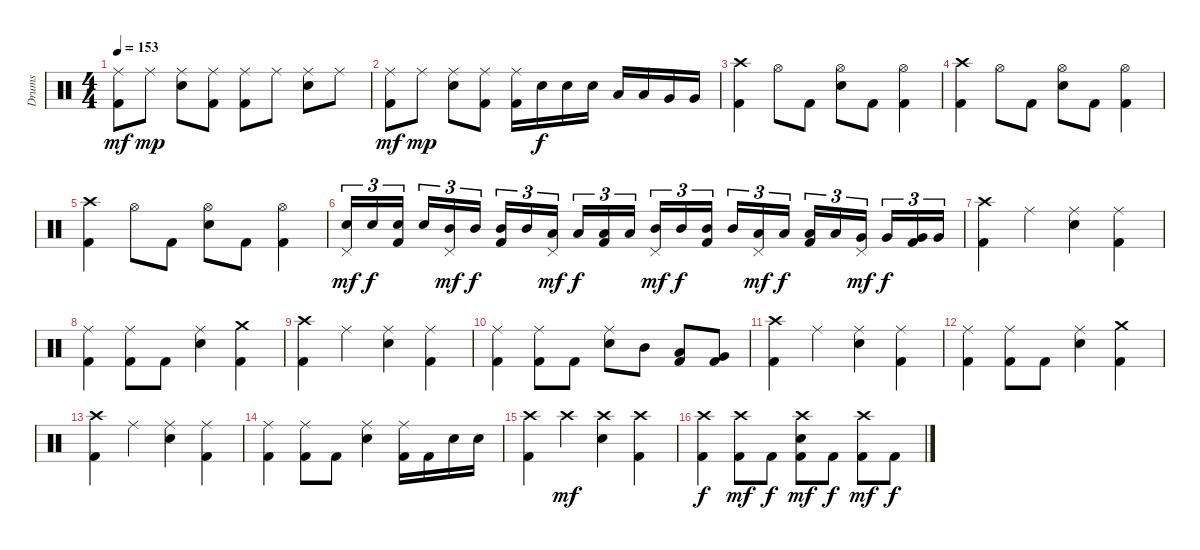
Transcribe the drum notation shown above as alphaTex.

\track ("Drums" "Drums") {instrument percussion}
\staff {score}
\articulation defaults
\ts (4 4)
\tempo 153
\clef neutral
\ks c
("Ride (middle)" "Kick (hit) 2").8{dy mf} "Ride (middle)".8{dy mp} ("Ride (middle)" "Electric Snare (hit)").8 ("Ride (middle)" "Kick (hit) 2").8 ("Ride (middle)" "Kick (hit) 2").8 "Ride (middle)".8 ("Ride (middle)" "Electric Snare (hit)").8 "Ride (middle)".8 |
("Ride (middle)" "Kick (hit) 2").8{dy mf} "Ride (middle)".8{dy mp} ("Ride (middle)" "Electric Snare (hit)").8 ("Ride (middle)" "Kick (hit) 2").8 ("Ride (middle)" "Kick (hit) 2").16 "Electric Snare (hit)".16{dy f} "Electric Snare (hit)".16 "Electric Snare (hit)".16 "Low Tom (hit)".16 "Low Tom (hit)".16 "Very Low Tom (hit)".16 "Very Low Tom (hit)".16 |
("Crash high (hit)" "Kick (hit) 2").4 "Hi-Hat (open)".8 "Kick (hit) 2".8 ("Hi-Hat (open)" "Electric Snare (hit)").8 "Kick (hit) 2".8 ("Hi-Hat (open)" "Kick (hit) 2").4 |
("Crash high (hit)" "Kick (hit) 2").4 "Hi-Hat (open)".8 "Kick (hit) 2".8 ("Hi-Hat (open)" "Electric Snare (hit)").8 "Kick (hit) 2".8 ("Hi-Hat (open)" "Kick (hit) 2").4 |
("Crash high (hit)" "Kick (hit) 2").4 "Hi-Hat (open)".8 "Kick (hit) 2".8 ("Hi-Hat (open)" "Electric Snare (hit)").8 "Kick (hit) 2".8 ("Hi-Hat (open)" "Kick (hit) 2").4 |
("Pedal Hi-Hat (hit)" "Electric Snare (hit)").16{tu (3 2) dy mf} "Electric Snare (hit)".16{tu (3 2) dy f} ("Electric Snare (hit)" "Kick (hit) 2").16{tu (3 2)} "Electric Snare (hit)".16{tu (3 2)} ("Pedal Hi-Hat (hit)" "Mid Tom (hit)").16{tu (3 2) dy mf} "Mid Tom (hit)".16{tu (3 2) dy f} ("Mid Tom (hit)" "Kick (hit) 2").16{tu (3 2)} "Mid Tom (hit)".16{tu (3 2)} ("Pedal Hi-Hat (hit)" "Low Tom (hit)").16{tu (3 2) dy mf} "Low Tom (hit)".16{tu (3 2) dy f} ("Low Tom (hit)" "Kick (hit) 2").16{tu (3 2)} "Low Tom (hit)".16{tu (3 2)} ("Pedal Hi-Hat (hit)" "Mid Tom (hit)").16{tu (3 2) dy mf} "Mid Tom (hit)".16{tu (3 2) dy f} ("Mid Tom (hit)" "Kick (hit) 2").16{tu (3 2)} "Mid Tom (hit)".16{tu (3 2)} ("Pedal Hi-Hat (hit)" "Low Tom (hit)").16{tu (3 2) dy mf} "Low Tom (hit)".16{tu (3 2) dy f} ("Low Tom (hit)" "Kick (hit) 2").16{tu (3 2)} "Low Tom (hit)".16{tu (3 2)} ("Pedal Hi-Hat (hit)" "Very Low Tom (hit)").16{tu (3 2) dy mf} "Very Low Tom (hit)".16{tu (3 2) dy f} ("Very Low Tom (hit)" "Kick (hit) 2").16{tu (3 2)} "Very Low Tom (hit)".16{tu (3 2)} |
("Crash high (hit)" "Kick (hit) 2").4 "Ride (middle)".4 ("Ride (middle)" "Electric Snare (hit)").4 ("Ride (middle)" "Kick (hit) 2").4 |
("Ride (middle)" "Kick (hit) 2").4 ("Ride (middle)" "Kick (hit) 2").8 "Kick (hit) 2".8 ("Ride (middle)" "Electric Snare (hit)").4 ("Crash medium (hit)" "Kick (hit) 2").4 |
("Crash high (hit)" "Kick (hit) 2").4 "Ride (middle)".4 ("Ride (middle)" "Electric Snare (hit)").4 ("Ride (middle)" "Kick (hit) 2").4 |
("Ride (middle)" "Kick (hit) 2").4 ("Ride (middle)" "Kick (hit) 2").8 "Kick (hit) 2".8 ("Ride (middle)" "Electric Snare (hit)").8 "Mid Tom (hit)".8 ("Low Tom (hit)" "Kick (hit) 2").8 ("Very Low Tom (hit)" "Kick (hit) 2").8 |
("Crash high (hit)" "Kick (hit) 2").4 "Ride (middle)".4 ("Ride (middle)" "Electric Snare (hit)").4 ("Ride (middle)" "Kick (hit) 2").4 |
("Ride (middle)" "Kick (hit) 2").4 ("Ride (middle)" "Kick (hit) 2").8 "Kick (hit) 2".8 ("Ride (middle)" "Electric Snare (hit)").4 ("Crash medium (hit)" "Kick (hit) 2").4 |
("Crash high (hit)" "Kick (hit) 2").4 "Ride (middle)".4 ("Ride (middle)" "Electric Snare (hit)").4 ("Ride (middle)" "Kick (hit) 2").4 |
("Ride (middle)" "Kick (hit) 2").4 ("Ride (middle)" "Kick (hit) 2").8 "Kick (hit) 2".8 ("Ride (middle)" "Electric Snare (hit)").4 ("Ride (middle)" "Kick (hit) 2").16 "Kick (hit) 2".16 "Electric Snare (hit)".16 "Electric Snare (hit)".16 |
("Crash high (hit)" "Kick (hit) 2").4 "Crash high (hit)".4{dy mf} ("Crash high (hit)" "Electric Snare (hit)").4 ("Crash high (hit)" "Kick (hit) 2").4 |
("Crash high (hit)" "Kick (hit) 2").4{dy f} ("Crash high (hit)" "Kick (hit) 2").8{dy mf} "Kick (hit) 2".8{dy f} ("Crash high (hit)" "Electric Snare (hit)" "Kick (hit) 2").8{dy mf} "Kick (hit) 2".8{dy f} ("Crash high (hit)" "Kick (hit) 2").8{dy mf} "Kick (hit) 2".8{dy f}
